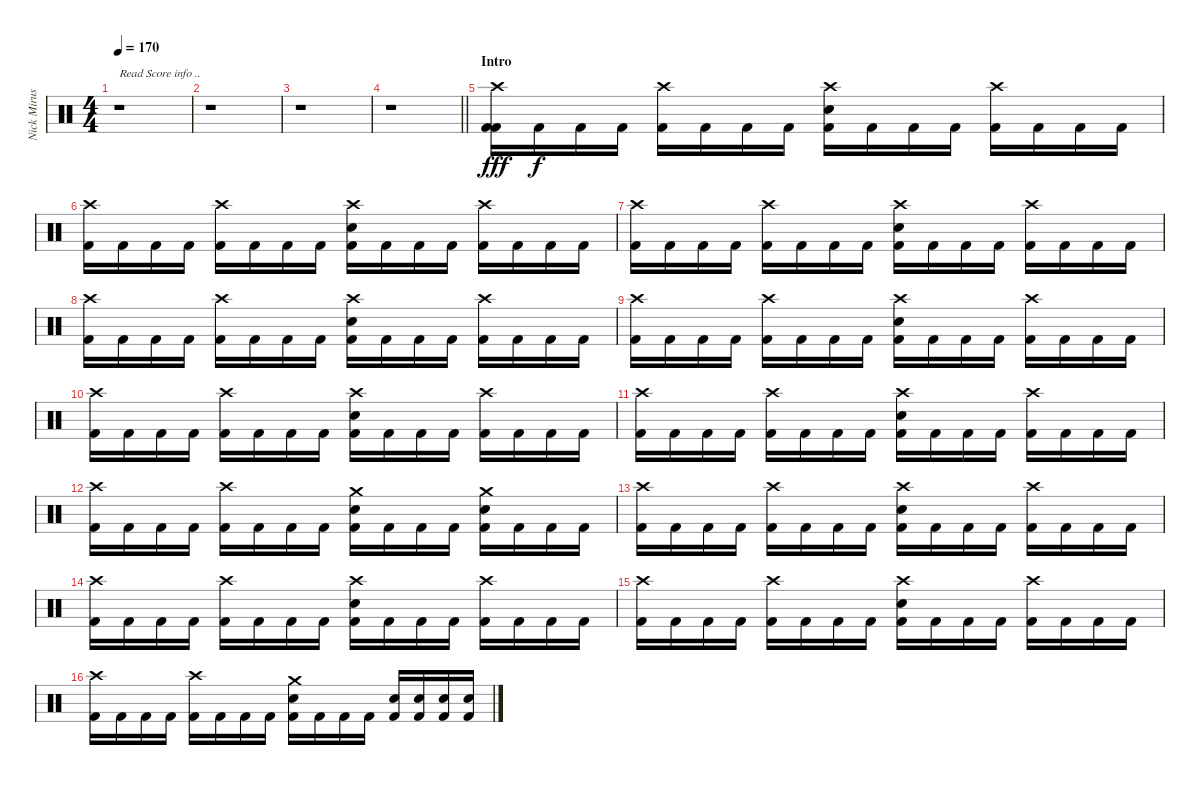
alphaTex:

\track ("Nick Mirusso - Drums" "Nick Mirus") {instrument percussion}
\staff {score}
\articulation defaults
\ts (4 4)
\tempo 170
\clef neutral
\ks c
r.1{txt "Read Score info .." dy fff} |
r.1 |
r.1 |
\barLineRight lightlight
r.1 |
\section ("" "Intro")
("Crash high (hit)" "Kick (hit) 2" "Kick (hit) 2").16 "Kick (hit) 2".16{dy f} "Kick (hit) 2".16 "Kick (hit) 2".16 ("Crash high (hit)" "Kick (hit) 2").16 "Kick (hit) 2".16 "Kick (hit) 2".16 "Kick (hit) 2".16 ("Crash high (hit)" "Electric Snare (hit)" "Kick (hit) 2").16 "Kick (hit) 2".16 "Kick (hit) 2".16 "Kick (hit) 2".16 ("Crash high (hit)" "Kick (hit) 2").16 "Kick (hit) 2".16 "Kick (hit) 2".16 "Kick (hit) 2".16 |
("Crash high (hit)" "Kick (hit) 2").16 "Kick (hit) 2".16 "Kick (hit) 2".16 "Kick (hit) 2".16 ("Crash high (hit)" "Kick (hit) 2").16 "Kick (hit) 2".16 "Kick (hit) 2".16 "Kick (hit) 2".16 ("Crash high (hit)" "Electric Snare (hit)" "Kick (hit) 2").16 "Kick (hit) 2".16 "Kick (hit) 2".16 "Kick (hit) 2".16 ("Crash high (hit)" "Kick (hit) 2").16 "Kick (hit) 2".16 "Kick (hit) 2".16 "Kick (hit) 2".16 |
("Crash high (hit)" "Kick (hit) 2").16 "Kick (hit) 2".16 "Kick (hit) 2".16 "Kick (hit) 2".16 ("Crash high (hit)" "Kick (hit) 2").16 "Kick (hit) 2".16 "Kick (hit) 2".16 "Kick (hit) 2".16 ("Crash high (hit)" "Electric Snare (hit)" "Kick (hit) 2").16 "Kick (hit) 2".16 "Kick (hit) 2".16 "Kick (hit) 2".16 ("Crash high (hit)" "Kick (hit) 2").16 "Kick (hit) 2".16 "Kick (hit) 2".16 "Kick (hit) 2".16 |
("Crash high (hit)" "Kick (hit) 2").16 "Kick (hit) 2".16 "Kick (hit) 2".16 "Kick (hit) 2".16 ("Crash high (hit)" "Kick (hit) 2").16 "Kick (hit) 2".16 "Kick (hit) 2".16 "Kick (hit) 2".16 ("Crash high (hit)" "Electric Snare (hit)" "Kick (hit) 2").16 "Kick (hit) 2".16 "Kick (hit) 2".16 "Kick (hit) 2".16 ("Crash high (hit)" "Kick (hit) 2").16 "Kick (hit) 2".16 "Kick (hit) 2".16 "Kick (hit) 2".16 |
("Crash high (hit)" "Kick (hit) 2").16 "Kick (hit) 2".16 "Kick (hit) 2".16 "Kick (hit) 2".16 ("Crash high (hit)" "Kick (hit) 2").16 "Kick (hit) 2".16 "Kick (hit) 2".16 "Kick (hit) 2".16 ("Crash high (hit)" "Electric Snare (hit)" "Kick (hit) 2").16 "Kick (hit) 2".16 "Kick (hit) 2".16 "Kick (hit) 2".16 ("Crash high (hit)" "Kick (hit) 2").16 "Kick (hit) 2".16 "Kick (hit) 2".16 "Kick (hit) 2".16 |
("Crash high (hit)" "Kick (hit) 2").16 "Kick (hit) 2".16 "Kick (hit) 2".16 "Kick (hit) 2".16 ("Crash high (hit)" "Kick (hit) 2").16 "Kick (hit) 2".16 "Kick (hit) 2".16 "Kick (hit) 2".16 ("Crash high (hit)" "Electric Snare (hit)" "Kick (hit) 2").16 "Kick (hit) 2".16 "Kick (hit) 2".16 "Kick (hit) 2".16 ("Crash high (hit)" "Kick (hit) 2").16 "Kick (hit) 2".16 "Kick (hit) 2".16 "Kick (hit) 2".16 |
("Crash high (hit)" "Kick (hit) 2").16 "Kick (hit) 2".16 "Kick (hit) 2".16 "Kick (hit) 2".16 ("Crash high (hit)" "Kick (hit) 2").16 "Kick (hit) 2".16 "Kick (hit) 2".16 "Kick (hit) 2".16 ("Crash high (hit)" "Electric Snare (hit)" "Kick (hit) 2").16 "Kick (hit) 2".16 "Kick (hit) 2".16 "Kick (hit) 2".16 ("Crash high (hit)" "Kick (hit) 2").16 "Kick (hit) 2".16 "Kick (hit) 2".16 "Kick (hit) 2".16 |
("Crash high (hit)" "Kick (hit) 2").16 "Kick (hit) 2".16 "Kick (hit) 2".16 "Kick (hit) 2".16 ("Crash high (hit)" "Kick (hit) 2").16 "Kick (hit) 2".16 "Kick (hit) 2".16 "Kick (hit) 2".16 ("Crash medium (hit)" "Electric Snare (hit)" "Kick (hit) 2").16 "Kick (hit) 2".16 "Kick (hit) 2".16 "Kick (hit) 2".16 ("Crash medium (hit)" "Electric Snare (hit)" "Kick (hit) 2").16 "Kick (hit) 2".16 "Kick (hit) 2".16 "Kick (hit) 2".16 |
("Crash high (hit)" "Kick (hit) 2").16 "Kick (hit) 2".16 "Kick (hit) 2".16 "Kick (hit) 2".16 ("Crash high (hit)" "Kick (hit) 2").16 "Kick (hit) 2".16 "Kick (hit) 2".16 "Kick (hit) 2".16 ("Crash high (hit)" "Electric Snare (hit)" "Kick (hit) 2").16 "Kick (hit) 2".16 "Kick (hit) 2".16 "Kick (hit) 2".16 ("Crash high (hit)" "Kick (hit) 2").16 "Kick (hit) 2".16 "Kick (hit) 2".16 "Kick (hit) 2".16 |
("Crash high (hit)" "Kick (hit) 2").16 "Kick (hit) 2".16 "Kick (hit) 2".16 "Kick (hit) 2".16 ("Crash high (hit)" "Kick (hit) 2").16 "Kick (hit) 2".16 "Kick (hit) 2".16 "Kick (hit) 2".16 ("Crash high (hit)" "Electric Snare (hit)" "Kick (hit) 2").16 "Kick (hit) 2".16 "Kick (hit) 2".16 "Kick (hit) 2".16 ("Crash high (hit)" "Kick (hit) 2").16 "Kick (hit) 2".16 "Kick (hit) 2".16 "Kick (hit) 2".16 |
("Crash high (hit)" "Kick (hit) 2").16 "Kick (hit) 2".16 "Kick (hit) 2".16 "Kick (hit) 2".16 ("Crash high (hit)" "Kick (hit) 2").16 "Kick (hit) 2".16 "Kick (hit) 2".16 "Kick (hit) 2".16 ("Crash high (hit)" "Electric Snare (hit)" "Kick (hit) 2").16 "Kick (hit) 2".16 "Kick (hit) 2".16 "Kick (hit) 2".16 ("Crash high (hit)" "Kick (hit) 2").16 "Kick (hit) 2".16 "Kick (hit) 2".16 "Kick (hit) 2".16 |
("Crash high (hit)" "Kick (hit) 2").16 "Kick (hit) 2".16 "Kick (hit) 2".16 "Kick (hit) 2".16 ("Crash high (hit)" "Kick (hit) 2").16 "Kick (hit) 2".16 "Kick (hit) 2".16 "Kick (hit) 2".16 ("Crash medium (hit)" "Electric Snare (hit)" "Kick (hit) 2").16 "Kick (hit) 2".16 "Kick (hit) 2".16 "Kick (hit) 2".16 ("Electric Snare (hit)" "Kick (hit) 2").16 ("Electric Snare (hit)" "Kick (hit) 2").16 ("Electric Snare (hit)" "Kick (hit) 2").16 ("Electric Snare (hit)" "Kick (hit) 2").16
